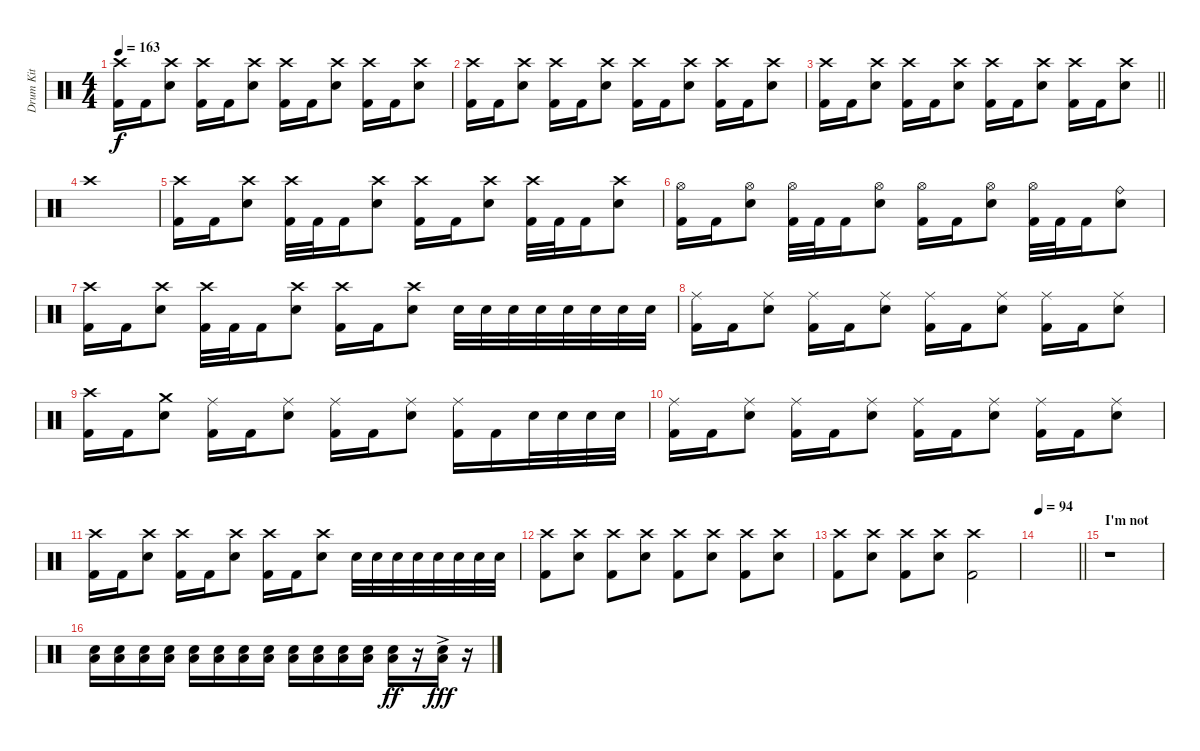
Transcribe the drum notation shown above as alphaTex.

\track ("Drum Kit" "Drum Kit") {instrument percussion}
\staff {score}
\articulation defaults
\ts (4 4)
\tempo 163
\clef neutral
\ks c
("Crash high (hit)" "Kick (hit) 2").16{dy f} "Kick (hit) 2".16 ("Crash high (hit)" "Electric Snare (hit)").8 ("Crash high (hit)" "Kick (hit) 2").16 "Kick (hit) 2".16 ("Crash high (hit)" "Electric Snare (hit)").8 ("Crash high (hit)" "Kick (hit) 2").16 "Kick (hit) 2".16 ("Crash high (hit)" "Electric Snare (hit)").8 ("Crash high (hit)" "Kick (hit) 2").16 "Kick (hit) 2".16 ("Crash high (hit)" "Electric Snare (hit)").8 |
("Crash high (hit)" "Kick (hit) 2").16 "Kick (hit) 2".16 ("Crash high (hit)" "Electric Snare (hit)").8 ("Crash high (hit)" "Kick (hit) 2").16 "Kick (hit) 2".16 ("Crash high (hit)" "Electric Snare (hit)").8 ("Crash high (hit)" "Kick (hit) 2").16 "Kick (hit) 2".16 ("Crash high (hit)" "Electric Snare (hit)").8 ("Crash high (hit)" "Kick (hit) 2").16 "Kick (hit) 2".16 ("Crash high (hit)" "Electric Snare (hit)").8 |
\barLineRight lightlight
("Crash high (hit)" "Kick (hit) 2").16 "Kick (hit) 2".16 ("Crash high (hit)" "Electric Snare (hit)").8 ("Crash high (hit)" "Kick (hit) 2").16 "Kick (hit) 2".16 ("Crash high (hit)" "Electric Snare (hit)").8 ("Crash high (hit)" "Kick (hit) 2").16 "Kick (hit) 2".16 ("Crash high (hit)" "Electric Snare (hit)").8 ("Crash high (hit)" "Kick (hit) 2").16 "Kick (hit) 2".16 ("Crash high (hit)" "Electric Snare (hit)").8 |
"Crash high (hit)".1 |
("Crash high (hit)" "Kick (hit) 2").16 "Kick (hit) 2".16 ("Crash high (hit)" "Electric Snare (hit)").8 ("Crash high (hit)" "Kick (hit) 2").32 "Kick (hit) 2".32 "Kick (hit) 2".16 ("Crash high (hit)" "Electric Snare (hit)").8 ("Crash high (hit)" "Kick (hit) 2").16 "Kick (hit) 2".16 ("Crash high (hit)" "Electric Snare (hit)").8 ("Crash high (hit)" "Kick (hit) 2").32 "Kick (hit) 2".32 "Kick (hit) 2".16 ("Crash high (hit)" "Electric Snare (hit)").8 |
("Hi-Hat (open)" "Kick (hit) 2").16 "Kick (hit) 2".16 ("Hi-Hat (open)" "Electric Snare (hit)").8 ("Hi-Hat (open)" "Kick (hit) 2").32 "Kick (hit) 2".32 "Kick (hit) 2".16 ("Hi-Hat (open)" "Electric Snare (hit)").8 ("Hi-Hat (open)" "Kick (hit) 2").16 "Kick (hit) 2".16 ("Hi-Hat (open)" "Electric Snare (hit)").8 ("Hi-Hat (open)" "Kick (hit) 2").32 "Kick (hit) 2".32 "Kick (hit) 2".16 ("Ride (bell)" "Electric Snare (hit)").8 |
("Crash high (hit)" "Kick (hit) 2").16 "Kick (hit) 2".16 ("Crash high (hit)" "Electric Snare (hit)").8 ("Crash high (hit)" "Kick (hit) 2").32 "Kick (hit) 2".32 "Kick (hit) 2".16 ("Crash high (hit)" "Electric Snare (hit)").8 ("Crash high (hit)" "Kick (hit) 2").16 "Kick (hit) 2".16 ("Crash high (hit)" "Electric Snare (hit)").8 "Electric Snare (hit)".32 "Electric Snare (hit)".32 "Electric Snare (hit)".32 "Electric Snare (hit)".32 "Electric Snare (hit)".32 "Electric Snare (hit)".32 "Electric Snare (hit)".32 "Electric Snare (hit)".32 |
("Ride (middle)" "Kick (hit) 2").16 "Kick (hit) 2".16 ("Ride (middle)" "Electric Snare (hit)").8 ("Ride (middle)" "Kick (hit) 2").16 "Kick (hit) 2".16 ("Ride (middle)" "Electric Snare (hit)").8 ("Ride (middle)" "Kick (hit) 2").16 "Kick (hit) 2".16 ("Ride (middle)" "Electric Snare (hit)").8 ("Ride (middle)" "Kick (hit) 2").16 "Kick (hit) 2".16 ("Ride (middle)" "Electric Snare (hit)").8 |
("Crash high (hit)" "Kick (hit) 2").16 "Kick (hit) 2".16 ("Crash medium (hit)" "Electric Snare (hit)").8 ("Ride (middle)" "Kick (hit) 2").16 "Kick (hit) 2".16 ("Ride (middle)" "Electric Snare (hit)").8 ("Ride (middle)" "Kick (hit) 2").16 "Kick (hit) 2".16 ("Ride (middle)" "Electric Snare (hit)").8 ("Ride (middle)" "Kick (hit) 2").16 "Kick (hit) 2".16 "Electric Snare (hit)".32 "Electric Snare (hit)".32 "Electric Snare (hit)".32 "Electric Snare (hit)".32 |
("Ride (middle)" "Kick (hit) 2").16 "Kick (hit) 2".16 ("Ride (middle)" "Electric Snare (hit)").8 ("Ride (middle)" "Kick (hit) 2").16 "Kick (hit) 2".16 ("Ride (middle)" "Electric Snare (hit)").8 ("Ride (middle)" "Kick (hit) 2").16 "Kick (hit) 2".16 ("Ride (middle)" "Electric Snare (hit)").8 ("Ride (middle)" "Kick (hit) 2").16 "Kick (hit) 2".16 ("Ride (middle)" "Electric Snare (hit)").8 |
("Crash high (hit)" "Kick (hit) 2").16 "Kick (hit) 2".16 ("Crash high (hit)" "Electric Snare (hit)").8 ("Crash high (hit)" "Kick (hit) 2").16 "Kick (hit) 2".16 ("Crash high (hit)" "Electric Snare (hit)").8 ("Crash high (hit)" "Kick (hit) 2").16 "Kick (hit) 2".16 ("Crash high (hit)" "Electric Snare (hit)").8 "Electric Snare (hit)".32 "Electric Snare (hit)".32 "Electric Snare (hit)".32 "Electric Snare (hit)".32 "Electric Snare (hit)".32 "Electric Snare (hit)".32 "Electric Snare (hit)".32 "Electric Snare (hit)".32 |
("Crash high (hit)" "Kick (hit) 2").8 ("Crash high (hit)" "Electric Snare (hit)").8 ("Crash high (hit)" "Kick (hit) 2").8 ("Crash high (hit)" "Electric Snare (hit)").8 ("Crash high (hit)" "Kick (hit) 2").8 ("Crash high (hit)" "Electric Snare (hit)").8 ("Crash high (hit)" "Kick (hit) 2").8 ("Crash high (hit)" "Electric Snare (hit)").8 |
("Crash high (hit)" "Kick (hit) 2").8 ("Crash high (hit)" "Electric Snare (hit)").8 ("Crash high (hit)" "Kick (hit) 2").8 ("Crash high (hit)" "Electric Snare (hit)").8 ("Crash high (hit)" "Kick (hit) 2").2 |
\tempo 94
\barLineRight lightlight
|
\section ("" "I'm not")
r.1{volume 8} |
("Low Floor Tom (hit)" "Electric Snare (hit)").16{volume 13} ("Low Floor Tom (hit)" "Electric Snare (hit)").16 ("Low Floor Tom (hit)" "Electric Snare (hit)").16 ("Low Floor Tom (hit)" "Electric Snare (hit)").16 ("Low Floor Tom (hit)" "Electric Snare (hit)").16 ("Low Floor Tom (hit)" "Electric Snare (hit)").16 ("Low Floor Tom (hit)" "Electric Snare (hit)").16 ("Low Floor Tom (hit)" "Electric Snare (hit)").16 ("Low Floor Tom (hit)" "Electric Snare (hit)").16 ("Low Floor Tom (hit)" "Electric Snare (hit)").16 ("Low Floor Tom (hit)" "Electric Snare (hit)").16 ("Low Floor Tom (hit)" "Electric Snare (hit)").16 ("Low Floor Tom (hit)" "Electric Snare (hit)").16{dy ff} r.16 ("Low Floor Tom (hit)"{ac} "Electric Snare (hit)"{ac}).16{dy fff} r.16
